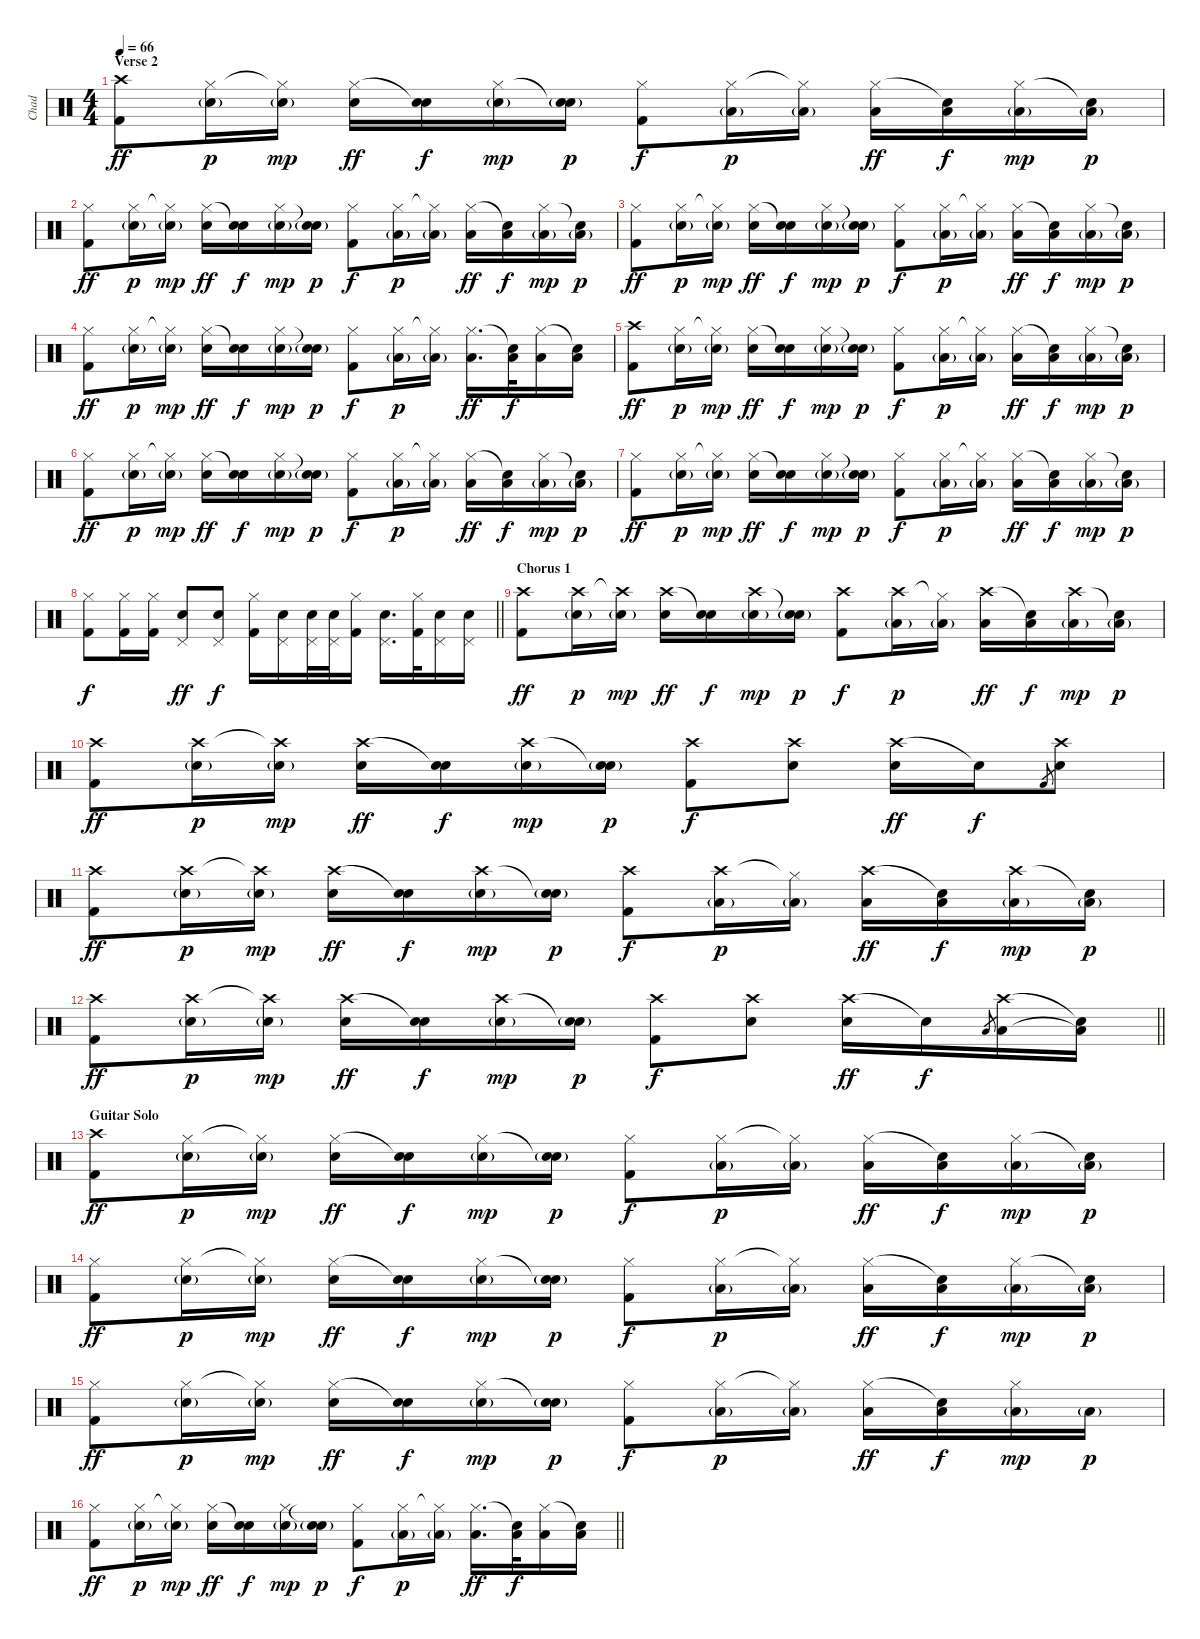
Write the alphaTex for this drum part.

\track ("Chad" "Chad") {instrument percussion}
\staff {score}
\articulation defaults
\ts (4 4)
\section ("" "Verse 2")
\tempo 66
\clef neutral
\ks c
("Crash high (hit)" "Kick (hit) 2").8{dy ff} ("Hi-Hat (closed)" "Snare (hit) 2"{g}).16{dy p} ("Hi-Hat (closed)"{t} "Snare (hit) 2"{g}).16{dy mp} ("Hi-Hat (closed)" "Snare (hit) 2").16{dy ff} ("Snare (hit)"{t} "Snare (hit) 2").16{dy f} ("Hi-Hat (closed)" "Snare (hit) 2"{g}).16{dy mp} ("Snare (hit)"{t} "Snare (hit) 2"{g}).16{dy p} ("Hi-Hat (closed)" "Kick (hit) 2").8{dy f} ("Hi-Hat (closed)" "Low Floor Tom (hit)"{g}).16{dy p} ("Hi-Hat (closed)"{t} "Low Floor Tom (hit)"{g}).16 ("Hi-Hat (closed)" "Low Floor Tom (hit)").16{dy ff} ("Snare (hit)"{t} "Low Floor Tom (hit)").16{dy f} ("Hi-Hat (closed)" "Low Floor Tom (hit)"{g}).16{dy mp} ("Snare (hit)"{t} "Low Floor Tom (hit)"{g}).16{dy p} |
("Hi-Hat (closed)" "Kick (hit) 2").8{dy ff} ("Hi-Hat (closed)" "Snare (hit) 2"{g}).16{dy p} ("Hi-Hat (closed)"{t} "Snare (hit) 2"{g}).16{dy mp} ("Hi-Hat (closed)" "Snare (hit) 2").16{dy ff} ("Snare (hit)"{t} "Snare (hit) 2").16{dy f} ("Hi-Hat (closed)" "Snare (hit) 2"{g}).16{dy mp} ("Snare (hit)"{t} "Snare (hit) 2"{g}).16{dy p} ("Hi-Hat (closed)" "Kick (hit) 2").8{dy f} ("Hi-Hat (closed)" "Low Floor Tom (hit)"{g}).16{dy p} ("Hi-Hat (closed)"{t} "Low Floor Tom (hit)"{g}).16 ("Hi-Hat (closed)" "Low Floor Tom (hit)").16{dy ff} ("Snare (hit)"{t} "Low Floor Tom (hit)").16{dy f} ("Hi-Hat (closed)" "Low Floor Tom (hit)"{g}).16{dy mp} ("Snare (hit)"{t} "Low Floor Tom (hit)"{g}).16{dy p} |
("Hi-Hat (closed)" "Kick (hit) 2").8{dy ff} ("Hi-Hat (closed)" "Snare (hit) 2"{g}).16{dy p} ("Hi-Hat (closed)"{t} "Snare (hit) 2"{g}).16{dy mp} ("Hi-Hat (closed)" "Snare (hit) 2").16{dy ff} ("Snare (hit)"{t} "Snare (hit) 2").16{dy f} ("Hi-Hat (closed)" "Snare (hit) 2"{g}).16{dy mp} ("Snare (hit)"{t} "Snare (hit) 2"{g}).16{dy p} ("Hi-Hat (closed)" "Kick (hit) 2").8{dy f} ("Hi-Hat (closed)" "Low Floor Tom (hit)"{g}).16{dy p} ("Hi-Hat (closed)"{t} "Low Floor Tom (hit)"{g}).16 ("Hi-Hat (closed)" "Low Floor Tom (hit)").16{dy ff} ("Snare (hit)"{t} "Low Floor Tom (hit)").16{dy f} ("Hi-Hat (closed)" "Low Floor Tom (hit)"{g}).16{dy mp} ("Snare (hit)"{t} "Low Floor Tom (hit)"{g}).16{dy p} |
("Hi-Hat (closed)" "Kick (hit) 2").8{dy ff} ("Hi-Hat (closed)" "Snare (hit) 2"{g}).16{dy p} ("Hi-Hat (closed)"{t} "Snare (hit) 2"{g}).16{dy mp} ("Hi-Hat (closed)" "Snare (hit) 2").16{dy ff} ("Snare (hit)"{t} "Snare (hit) 2").16{dy f} ("Hi-Hat (closed)" "Snare (hit) 2"{g}).16{dy mp} ("Snare (hit)"{t} "Snare (hit) 2"{g}).16{dy p} ("Hi-Hat (closed)" "Kick (hit) 2").8{dy f} ("Hi-Hat (closed)" "Low Floor Tom (hit)"{g}).16{dy p} ("Hi-Hat (closed)"{t} "Low Floor Tom (hit)"{g}).16 ("Hi-Hat (closed)" "Low Floor Tom (hit)").16{d dy ff} ("Snare (hit)"{t} "Low Floor Tom (hit)").32{dy f} ("Hi-Hat (closed)" "Low Floor Tom (hit)").16 ("Snare (hit)"{t} "Low Floor Tom (hit)").16 |
("Crash high (hit)" "Kick (hit) 2").8{dy ff} ("Hi-Hat (closed)" "Snare (hit) 2"{g}).16{dy p} ("Hi-Hat (closed)"{t} "Snare (hit) 2"{g}).16{dy mp} ("Hi-Hat (closed)" "Snare (hit) 2").16{dy ff} ("Snare (hit)"{t} "Snare (hit) 2").16{dy f} ("Hi-Hat (closed)" "Snare (hit) 2"{g}).16{dy mp} ("Snare (hit)"{t} "Snare (hit) 2"{g}).16{dy p} ("Hi-Hat (closed)" "Kick (hit) 2").8{dy f} ("Hi-Hat (closed)" "Low Floor Tom (hit)"{g}).16{dy p} ("Hi-Hat (closed)"{t} "Low Floor Tom (hit)"{g}).16 ("Hi-Hat (closed)" "Low Floor Tom (hit)").16{dy ff} ("Snare (hit)"{t} "Low Floor Tom (hit)").16{dy f} ("Hi-Hat (closed)" "Low Floor Tom (hit)"{g}).16{dy mp} ("Snare (hit)"{t} "Low Floor Tom (hit)"{g}).16{dy p} |
("Hi-Hat (closed)" "Kick (hit) 2").8{dy ff} ("Hi-Hat (closed)" "Snare (hit) 2"{g}).16{dy p} ("Hi-Hat (closed)"{t} "Snare (hit) 2"{g}).16{dy mp} ("Hi-Hat (closed)" "Snare (hit) 2").16{dy ff} ("Snare (hit)"{t} "Snare (hit) 2").16{dy f} ("Hi-Hat (closed)" "Snare (hit) 2"{g}).16{dy mp} ("Snare (hit)"{t} "Snare (hit) 2"{g}).16{dy p} ("Hi-Hat (closed)" "Kick (hit) 2").8{dy f} ("Hi-Hat (closed)" "Low Floor Tom (hit)"{g}).16{dy p} ("Hi-Hat (closed)"{t} "Low Floor Tom (hit)"{g}).16 ("Hi-Hat (closed)" "Low Floor Tom (hit)").16{dy ff} ("Snare (hit)"{t} "Low Floor Tom (hit)").16{dy f} ("Hi-Hat (closed)" "Low Floor Tom (hit)"{g}).16{dy mp} ("Snare (hit)"{t} "Low Floor Tom (hit)"{g}).16{dy p} |
("Hi-Hat (closed)" "Kick (hit) 2").8{dy ff} ("Hi-Hat (closed)" "Snare (hit) 2"{g}).16{dy p} ("Hi-Hat (closed)"{t} "Snare (hit) 2"{g}).16{dy mp} ("Hi-Hat (closed)" "Snare (hit) 2").16{dy ff} ("Snare (hit)"{t} "Snare (hit) 2").16{dy f} ("Hi-Hat (closed)" "Snare (hit) 2"{g}).16{dy mp} ("Snare (hit)"{t} "Snare (hit) 2"{g}).16{dy p} ("Hi-Hat (closed)" "Kick (hit) 2").8{dy f} ("Hi-Hat (closed)" "Low Floor Tom (hit)"{g}).16{dy p} ("Hi-Hat (closed)"{t} "Low Floor Tom (hit)"{g}).16 ("Hi-Hat (closed)" "Low Floor Tom (hit)").16{dy ff} ("Snare (hit)"{t} "Low Floor Tom (hit)").16{dy f} ("Hi-Hat (closed)" "Low Floor Tom (hit)"{g}).16{dy mp} ("Snare (hit)"{t} "Low Floor Tom (hit)"{g}).16{dy p} |
\barLineRight lightlight
("Hi-Hat (closed)" "Kick (hit) 2").8{dy f} ("Hi-Hat (closed)" "Kick (hit) 2").16 ("Hi-Hat (closed)" "Kick (hit) 2").16 ("Pedal Hi-Hat (hit)" "Snare (hit) 2").8{dy ff} ("Pedal Hi-Hat (hit)" "Snare (hit) 2").8{dy f} ("Hi-Hat (closed)" "Kick (hit) 2").16 ("Pedal Hi-Hat (hit)" "Snare (hit) 2").16 ("Pedal Hi-Hat (hit)" "Snare (hit) 2").32 ("Pedal Hi-Hat (hit)" "Snare (hit) 2").32 ("Hi-Hat (closed)" "Kick (hit) 2").16 ("Pedal Hi-Hat (hit)" "Snare (hit) 2").16{d} ("Hi-Hat (closed)" "Kick (hit) 2").32 ("Pedal Hi-Hat (hit)" "Snare (hit) 2").16 ("Pedal Hi-Hat (hit)" "Snare (hit) 2").16 |
\section ("" "Chorus 1")
("Crash high (hit)" "Kick (hit) 2").8{dy ff volume 16} ("Crash high (hit)" "Snare (hit) 2"{g}).16{dy p} ("Crash high (hit)"{t} "Snare (hit) 2"{g}).16{dy mp} ("Crash high (hit)" "Snare (hit) 2").16{dy ff} ("Snare (hit)"{t} "Snare (hit) 2").16{dy f} ("Crash high (hit)" "Snare (hit) 2"{g}).16{dy mp} ("Snare (hit)"{t} "Snare (hit) 2"{g}).16{dy p} ("Crash high (hit)" "Kick (hit) 2").8{dy f} ("Crash high (hit)" "Low Floor Tom (hit)"{g}).16{dy p} ("Hi-Hat (closed)"{t} "Low Floor Tom (hit)"{g}).16 ("Crash high (hit)" "Low Floor Tom (hit)").16{dy ff} ("Snare (hit)"{t} "Low Floor Tom (hit)").16{dy f} ("Crash high (hit)" "Low Floor Tom (hit)"{g}).16{dy mp} ("Snare (hit)"{t} "Low Floor Tom (hit)"{g}).16{dy p} |
("Crash high (hit)" "Kick (hit) 2").8{dy ff} ("Crash high (hit)" "Snare (hit) 2"{g}).16{dy p} ("Crash high (hit)"{t} "Snare (hit) 2"{g}).16{dy mp} ("Crash high (hit)" "Snare (hit) 2").16{dy ff} ("Snare (hit)"{t} "Snare (hit) 2").16{dy f} ("Crash high (hit)" "Snare (hit) 2"{g}).16{dy mp} ("Snare (hit)"{t} "Snare (hit) 2"{g}).16{dy p} ("Crash high (hit)" "Kick (hit) 2").8{dy f} ("Crash high (hit)" "Snare (hit) 2").8 ("Crash high (hit)" "Snare (hit) 2").16{dy ff} "Snare (hit)"{t}.16{dy f} "Kick (hit) 2".8{gr} ("Crash high (hit)" "Snare (hit) 2").8 |
("Crash high (hit)" "Kick (hit) 2").8{dy ff} ("Crash high (hit)" "Snare (hit) 2"{g}).16{dy p} ("Crash high (hit)"{t} "Snare (hit) 2"{g}).16{dy mp} ("Crash high (hit)" "Snare (hit) 2").16{dy ff} ("Snare (hit)"{t} "Snare (hit) 2").16{dy f} ("Crash high (hit)" "Snare (hit) 2"{g}).16{dy mp} ("Snare (hit)"{t} "Snare (hit) 2"{g}).16{dy p} ("Crash high (hit)" "Kick (hit) 2").8{dy f} ("Crash high (hit)" "Low Floor Tom (hit)"{g}).16{dy p} ("Hi-Hat (closed)"{t} "Low Floor Tom (hit)"{g}).16 ("Crash high (hit)" "Low Floor Tom (hit)").16{dy ff} ("Snare (hit)"{t} "Low Floor Tom (hit)").16{dy f} ("Crash high (hit)" "Low Floor Tom (hit)"{g}).16{dy mp} ("Snare (hit)"{t} "Low Floor Tom (hit)"{g}).16{dy p} |
\barLineRight lightlight
("Crash high (hit)" "Kick (hit) 2").8{dy ff} ("Crash high (hit)" "Snare (hit) 2"{g}).16{dy p} ("Crash high (hit)"{t} "Snare (hit) 2"{g}).16{dy mp} ("Crash high (hit)" "Snare (hit) 2").16{dy ff} ("Snare (hit)"{t} "Snare (hit) 2").16{dy f} ("Crash high (hit)" "Snare (hit) 2"{g}).16{dy mp} ("Snare (hit)"{t} "Snare (hit) 2"{g}).16{dy p} ("Crash high (hit)" "Kick (hit) 2").8{dy f} ("Crash high (hit)" "Snare (hit) 2").8 ("Crash high (hit)" "Snare (hit) 2").16{dy ff} "Snare (hit)"{t}.16{dy f} "Low Floor Tom (hit)".8{gr} ("Crash high (hit)" "Low Floor Tom (hit)").16 ("Snare (hit)"{t} "Low Floor Tom (hit)"{t}).16 |
\section ("" "Guitar Solo")
("Crash high (hit)" "Kick (hit) 2").8{dy ff volume 12} ("Hi-Hat (closed)" "Snare (hit) 2"{g}).16{dy p} ("Hi-Hat (closed)"{t} "Snare (hit) 2"{g}).16{dy mp} ("Hi-Hat (closed)" "Snare (hit) 2").16{dy ff} ("Snare (hit)"{t} "Snare (hit) 2").16{dy f} ("Hi-Hat (closed)" "Snare (hit) 2"{g}).16{dy mp} ("Snare (hit)"{t} "Snare (hit) 2"{g}).16{dy p} ("Hi-Hat (closed)" "Kick (hit) 2").8{dy f} ("Hi-Hat (closed)" "Low Floor Tom (hit)"{g}).16{dy p} ("Hi-Hat (closed)"{t} "Low Floor Tom (hit)"{g}).16 ("Hi-Hat (closed)" "Low Floor Tom (hit)").16{dy ff} ("Snare (hit)"{t} "Low Floor Tom (hit)").16{dy f} ("Hi-Hat (closed)" "Low Floor Tom (hit)"{g}).16{dy mp} ("Snare (hit)"{t} "Low Floor Tom (hit)"{g}).16{dy p} |
("Hi-Hat (closed)" "Kick (hit) 2").8{dy ff} ("Hi-Hat (closed)" "Snare (hit) 2"{g}).16{dy p} ("Hi-Hat (closed)"{t} "Snare (hit) 2"{g}).16{dy mp} ("Hi-Hat (closed)" "Snare (hit) 2").16{dy ff} ("Snare (hit)"{t} "Snare (hit) 2").16{dy f} ("Hi-Hat (closed)" "Snare (hit) 2"{g}).16{dy mp} ("Snare (hit)"{t} "Snare (hit) 2"{g}).16{dy p} ("Hi-Hat (closed)" "Kick (hit) 2").8{dy f} ("Hi-Hat (closed)" "Low Floor Tom (hit)"{g}).16{dy p} ("Hi-Hat (closed)"{t} "Low Floor Tom (hit)"{g}).16 ("Hi-Hat (closed)" "Low Floor Tom (hit)").16{dy ff} ("Snare (hit)"{t} "Low Floor Tom (hit)").16{dy f} ("Hi-Hat (closed)" "Low Floor Tom (hit)"{g}).16{dy mp} ("Snare (hit)"{t} "Low Floor Tom (hit)"{g}).16{dy p} |
("Hi-Hat (closed)" "Kick (hit) 2").8{dy ff} ("Hi-Hat (closed)" "Snare (hit) 2"{g}).16{dy p} ("Hi-Hat (closed)"{t} "Snare (hit) 2"{g}).16{dy mp} ("Hi-Hat (closed)" "Snare (hit) 2").16{dy ff} ("Snare (hit)"{t} "Snare (hit) 2").16{dy f} ("Hi-Hat (closed)" "Snare (hit) 2"{g}).16{dy mp} ("Snare (hit)"{t} "Snare (hit) 2"{g}).16{dy p} ("Hi-Hat (closed)" "Kick (hit) 2").8{dy f} ("Hi-Hat (closed)" "Low Floor Tom (hit)"{g}).16{dy p} ("Hi-Hat (closed)"{t} "Low Floor Tom (hit)"{g}).16 ("Hi-Hat (closed)" "Low Floor Tom (hit)").16{dy ff} ("Snare (hit)"{t} "Low Floor Tom (hit)").16{dy f} ("Hi-Hat (closed)" "Low Floor Tom (hit)"{g}).16{dy mp} "Low Floor Tom (hit)"{g}.16{dy p} |
\barLineRight lightlight
("Hi-Hat (closed)" "Kick (hit) 2").8{dy ff} ("Hi-Hat (closed)" "Snare (hit) 2"{g}).16{dy p} ("Hi-Hat (closed)"{t} "Snare (hit) 2"{g}).16{dy mp} ("Hi-Hat (closed)" "Snare (hit) 2").16{dy ff} ("Snare (hit)"{t} "Snare (hit) 2").16{dy f} ("Hi-Hat (closed)" "Snare (hit) 2"{g}).16{dy mp} ("Snare (hit)"{t} "Snare (hit) 2"{g}).16{dy p} ("Hi-Hat (closed)" "Kick (hit) 2").8{dy f} ("Hi-Hat (closed)" "Low Floor Tom (hit)"{g}).16{dy p} ("Hi-Hat (closed)"{t} "Low Floor Tom (hit)"{g}).16 ("Hi-Hat (closed)" "Low Floor Tom (hit)").16{d dy ff} ("Snare (hit)"{t} "Low Floor Tom (hit)").32{dy f} ("Hi-Hat (closed)" "Low Floor Tom (hit)").16 ("Snare (hit)"{t} "Low Floor Tom (hit)").16
